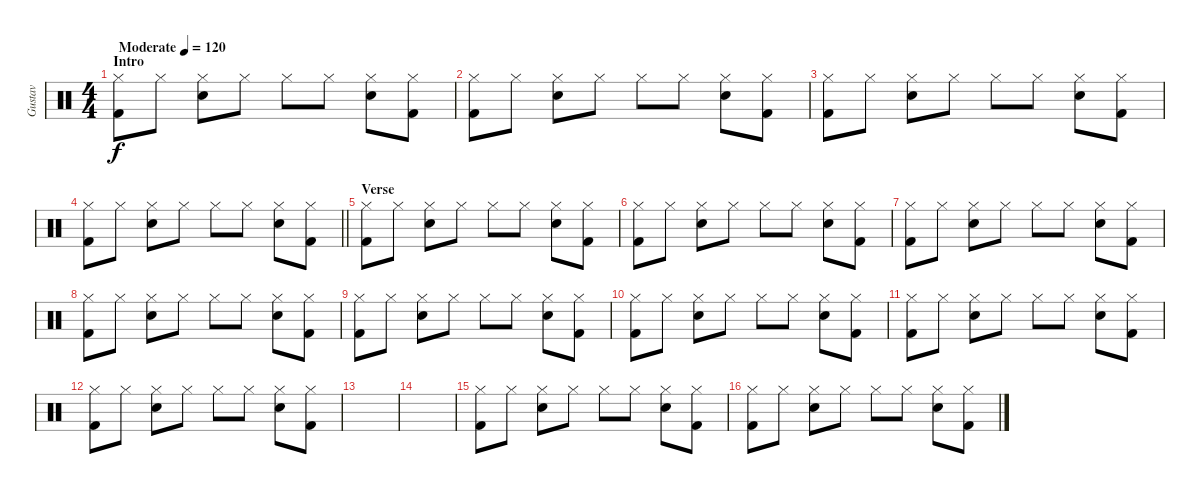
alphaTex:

\track ("Gustav" "Gustav") {instrument percussion}
\staff {score}
\articulation defaults
\ts (4 4)
\section ("" "Intro")
\tempo (120 "Moderate")
\clef neutral
\ks c
("Kick (hit) 2" "Hi-Hat (closed)").8{dy f} "Hi-Hat (closed)".8 ("Hi-Hat (closed)" "Snare (hit) 2").8 "Hi-Hat (closed)".8 "Hi-Hat (closed)".8 "Hi-Hat (closed)".8 ("Snare (hit) 2" "Hi-Hat (closed)").8 ("Hi-Hat (closed)" "Kick (hit) 2").8 |
("Kick (hit) 2" "Hi-Hat (closed)").8 "Hi-Hat (closed)".8 ("Hi-Hat (closed)" "Snare (hit) 2").8 "Hi-Hat (closed)".8 "Hi-Hat (closed)".8 "Hi-Hat (closed)".8 ("Snare (hit) 2" "Hi-Hat (closed)").8 ("Hi-Hat (closed)" "Kick (hit) 2").8 |
("Kick (hit) 2" "Hi-Hat (closed)").8 "Hi-Hat (closed)".8 ("Hi-Hat (closed)" "Snare (hit) 2").8 "Hi-Hat (closed)".8 "Hi-Hat (closed)".8 "Hi-Hat (closed)".8 ("Snare (hit) 2" "Hi-Hat (closed)").8 ("Hi-Hat (closed)" "Kick (hit) 2").8 |
\barLineRight lightlight
("Kick (hit) 2" "Hi-Hat (closed)").8 "Hi-Hat (closed)".8 ("Hi-Hat (closed)" "Snare (hit) 2").8 "Hi-Hat (closed)".8 "Hi-Hat (closed)".8 "Hi-Hat (closed)".8 ("Snare (hit) 2" "Hi-Hat (closed)").8 ("Hi-Hat (closed)" "Kick (hit) 2").8 |
\section ("" "Verse")
("Kick (hit) 2" "Hi-Hat (closed)").8 "Hi-Hat (closed)".8 ("Hi-Hat (closed)" "Snare (hit) 2").8 "Hi-Hat (closed)".8 "Hi-Hat (closed)".8 "Hi-Hat (closed)".8 ("Snare (hit) 2" "Hi-Hat (closed)").8 ("Hi-Hat (closed)" "Kick (hit) 2").8 |
("Kick (hit) 2" "Hi-Hat (closed)").8 "Hi-Hat (closed)".8 ("Hi-Hat (closed)" "Snare (hit) 2").8 "Hi-Hat (closed)".8 "Hi-Hat (closed)".8 "Hi-Hat (closed)".8 ("Snare (hit) 2" "Hi-Hat (closed)").8 ("Hi-Hat (closed)" "Kick (hit) 2").8 |
("Kick (hit) 2" "Hi-Hat (closed)").8 "Hi-Hat (closed)".8 ("Hi-Hat (closed)" "Snare (hit) 2").8 "Hi-Hat (closed)".8 "Hi-Hat (closed)".8 "Hi-Hat (closed)".8 ("Snare (hit) 2" "Hi-Hat (closed)").8 ("Hi-Hat (closed)" "Kick (hit) 2").8 |
("Kick (hit) 2" "Hi-Hat (closed)").8 "Hi-Hat (closed)".8 ("Hi-Hat (closed)" "Snare (hit) 2").8 "Hi-Hat (closed)".8 "Hi-Hat (closed)".8 "Hi-Hat (closed)".8 ("Snare (hit) 2" "Hi-Hat (closed)").8 ("Hi-Hat (closed)" "Kick (hit) 2").8 |
("Kick (hit) 2" "Hi-Hat (closed)").8 "Hi-Hat (closed)".8 ("Hi-Hat (closed)" "Snare (hit) 2").8 "Hi-Hat (closed)".8 "Hi-Hat (closed)".8 "Hi-Hat (closed)".8 ("Snare (hit) 2" "Hi-Hat (closed)").8 ("Hi-Hat (closed)" "Kick (hit) 2").8 |
("Kick (hit) 2" "Hi-Hat (closed)").8 "Hi-Hat (closed)".8 ("Hi-Hat (closed)" "Snare (hit) 2").8 "Hi-Hat (closed)".8 "Hi-Hat (closed)".8 "Hi-Hat (closed)".8 ("Snare (hit) 2" "Hi-Hat (closed)").8 ("Hi-Hat (closed)" "Kick (hit) 2").8 |
("Kick (hit) 2" "Hi-Hat (closed)").8 "Hi-Hat (closed)".8 ("Hi-Hat (closed)" "Snare (hit) 2").8 "Hi-Hat (closed)".8 "Hi-Hat (closed)".8 "Hi-Hat (closed)".8 ("Snare (hit) 2" "Hi-Hat (closed)").8 ("Hi-Hat (closed)" "Kick (hit) 2").8 |
("Kick (hit) 2" "Hi-Hat (closed)").8 "Hi-Hat (closed)".8 ("Hi-Hat (closed)" "Snare (hit) 2").8 "Hi-Hat (closed)".8 "Hi-Hat (closed)".8 "Hi-Hat (closed)".8 ("Snare (hit) 2" "Hi-Hat (closed)").8 ("Hi-Hat (closed)" "Kick (hit) 2").8 |
|
|
("Kick (hit) 2" "Hi-Hat (closed)").8 "Hi-Hat (closed)".8 ("Hi-Hat (closed)" "Snare (hit) 2").8 "Hi-Hat (closed)".8 "Hi-Hat (closed)".8 "Hi-Hat (closed)".8 ("Snare (hit) 2" "Hi-Hat (closed)").8 ("Hi-Hat (closed)" "Kick (hit) 2").8 |
("Kick (hit) 2" "Hi-Hat (closed)").8 "Hi-Hat (closed)".8 ("Hi-Hat (closed)" "Snare (hit) 2").8 "Hi-Hat (closed)".8 "Hi-Hat (closed)".8 "Hi-Hat (closed)".8 ("Snare (hit) 2" "Hi-Hat (closed)").8 ("Hi-Hat (closed)" "Kick (hit) 2").8
